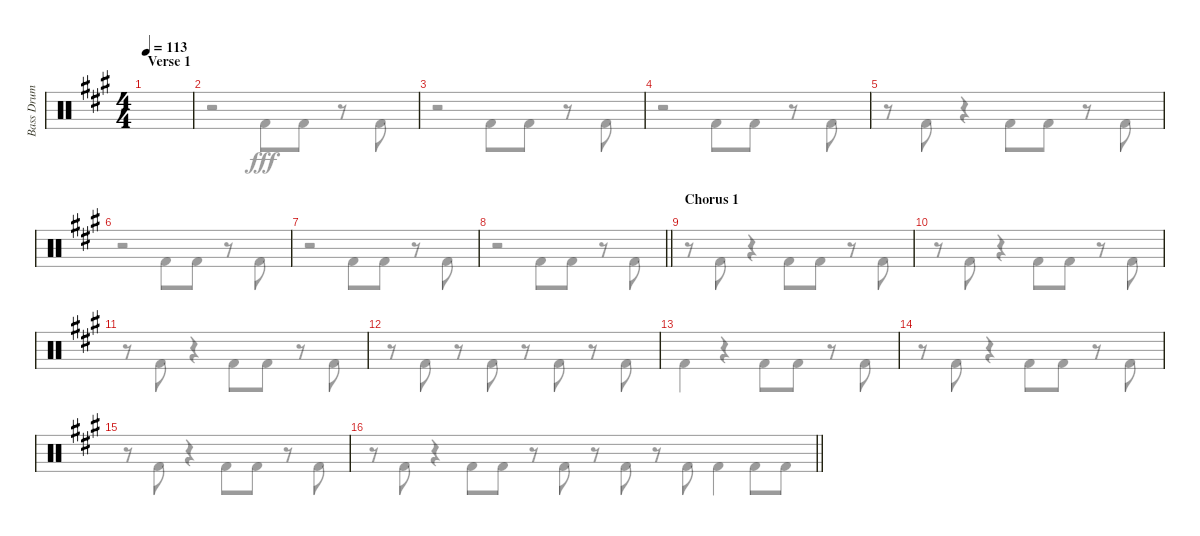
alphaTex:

\track ("Bass Drum" "Bass Drum") {instrument percussion}
\staff {score}
\articulation defaults
\voice
\ts (4 4)
\section ("" "Verse 1")
\tempo 113
\clef neutral
\ks f#minor
|
|
|
|
|
|
|
\barLineRight lightlight
|
\section ("" "Chorus 1")
|
|
|
|
|
|
|
\barLineRight lightlight
\voice
\clef neutral
\ks f#minor
r.8{dy fff} "Kick (hit) 2".8 r.4 "Kick (hit) 2".8 "Kick (hit) 2".8 r.8 "Kick (hit) 2".8 |
r.2 "Kick (hit) 2".8 "Kick (hit) 2".8 r.8 "Kick (hit) 2".8 |
r.2 "Kick (hit) 2".8 "Kick (hit) 2".8 r.8 "Kick (hit) 2".8 |
r.2 "Kick (hit) 2".8 "Kick (hit) 2".8 r.8 "Kick (hit) 2".8 |
r.8 "Kick (hit) 2".8 r.4 "Kick (hit) 2".8 "Kick (hit) 2".8 r.8 "Kick (hit) 2".8 |
r.2 "Kick (hit) 2".8 "Kick (hit) 2".8 r.8 "Kick (hit) 2".8 |
r.2 "Kick (hit) 2".8 "Kick (hit) 2".8 r.8 "Kick (hit) 2".8 |
\barLineRight lightlight
r.2 "Kick (hit) 2".8 "Kick (hit) 2".8 r.8 "Kick (hit) 2".8 |
r.8 "Kick (hit) 2".8 r.4 "Kick (hit) 2".8 "Kick (hit) 2".8 r.8 "Kick (hit) 2".8 |
r.8 "Kick (hit) 2".8 r.4 "Kick (hit) 2".8 "Kick (hit) 2".8 r.8 "Kick (hit) 2".8 |
r.8 "Kick (hit) 2".8 r.4 "Kick (hit) 2".8 "Kick (hit) 2".8 r.8 "Kick (hit) 2".8 |
r.8 "Kick (hit) 2".8 r.8 "Kick (hit) 2".8 r.8 "Kick (hit) 2".8 r.8 "Kick (hit) 2".8 |
"Kick (hit) 2".4 r.4 "Kick (hit) 2".8 "Kick (hit) 2".8 r.8 "Kick (hit) 2".8 |
r.8 "Kick (hit) 2".8 r.4 "Kick (hit) 2".8 "Kick (hit) 2".8 r.8 "Kick (hit) 2".8 |
r.8 "Kick (hit) 2".8 r.4 "Kick (hit) 2".8 "Kick (hit) 2".8 r.8 "Kick (hit) 2".8 |
\barLineRight lightlight
r.8 "Kick (hit) 2".8 r.8 "Kick (hit) 2".8 "Kick (hit) 2".4 "Kick (hit) 2".8 "Kick (hit) 2".8
